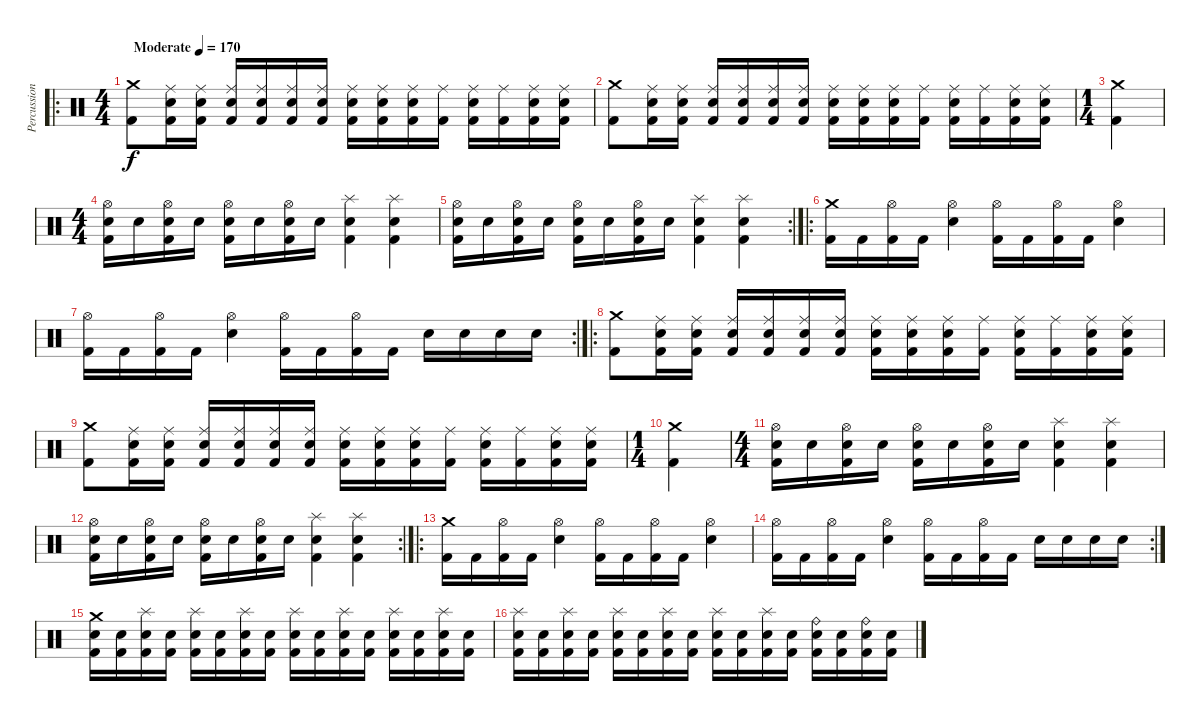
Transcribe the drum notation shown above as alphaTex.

\track ("Percussion" "Percussion") {instrument percussion}
\staff {score}
\articulation defaults
\ro
\ts (4 4)
\tempo (170 "Moderate")
\clef neutral
\ks c
("Crash medium (hit)" "Kick (hit) 2").8{dy f} ("Ride (middle)" "Electric Snare (hit)" "Kick (hit) 2").16 ("Ride (middle)" "Electric Snare (hit)" "Kick (hit) 2").16 ("Ride (middle)" "Electric Snare (hit)" "Kick (hit) 2").16 ("Ride (middle)" "Electric Snare (hit)" "Kick (hit) 2").16 ("Ride (middle)" "Electric Snare (hit)" "Kick (hit) 2").16 ("Ride (middle)" "Electric Snare (hit)" "Kick (hit) 2").16 ("Ride (middle)" "Electric Snare (hit)" "Kick (hit) 2").16 ("Ride (middle)" "Electric Snare (hit)" "Kick (hit) 2").16 ("Ride (middle)" "Electric Snare (hit)" "Kick (hit) 2").16 ("Ride (middle)" "Kick (hit) 2").16 ("Ride (middle)" "Electric Snare (hit)" "Kick (hit) 2").16 ("Ride (middle)" "Kick (hit) 2").16 ("Ride (middle)" "Electric Snare (hit)" "Kick (hit) 2").16 ("Ride (middle)" "Electric Snare (hit)" "Kick (hit) 2").16 |
("Crash medium (hit)" "Kick (hit) 2").8 ("Ride (middle)" "Electric Snare (hit)" "Kick (hit) 2").16 ("Ride (middle)" "Electric Snare (hit)" "Kick (hit) 2").16 ("Ride (middle)" "Electric Snare (hit)" "Kick (hit) 2").16 ("Ride (middle)" "Electric Snare (hit)" "Kick (hit) 2").16 ("Ride (middle)" "Electric Snare (hit)" "Kick (hit) 2").16 ("Ride (middle)" "Electric Snare (hit)" "Kick (hit) 2").16 ("Ride (middle)" "Electric Snare (hit)" "Kick (hit) 2").16 ("Ride (middle)" "Electric Snare (hit)" "Kick (hit) 2").16 ("Ride (middle)" "Electric Snare (hit)" "Kick (hit) 2").16 ("Ride (middle)" "Kick (hit) 2").16 ("Ride (middle)" "Electric Snare (hit)" "Kick (hit) 2").16 ("Ride (middle)" "Kick (hit) 2").16 ("Ride (middle)" "Electric Snare (hit)" "Kick (hit) 2").16 ("Ride (middle)" "Electric Snare (hit)" "Kick (hit) 2").16 |
\ts (1 4)
("Crash medium (hit)" "Kick (hit) 2").4 |
\ts (4 4)
("Hi-Hat (open)" "Electric Snare (hit)" "Kick (hit) 2").16 "Electric Snare (hit)".16 ("Hi-Hat (open)" "Electric Snare (hit)" "Kick (hit) 2").16 "Electric Snare (hit)".16 ("Hi-Hat (open)" "Electric Snare (hit)" "Kick (hit) 2").16 "Electric Snare (hit)".16 ("Hi-Hat (open)" "Electric Snare (hit)" "Kick (hit) 2").16 "Electric Snare (hit)".16 ("Splash (hit)" "Electric Snare (hit)" "Kick (hit) 2").4 ("Splash (hit)" "Electric Snare (hit)" "Kick (hit) 2").4 |
\rc 2
("Hi-Hat (open)" "Electric Snare (hit)" "Kick (hit) 2").16 "Electric Snare (hit)".16 ("Hi-Hat (open)" "Electric Snare (hit)" "Kick (hit) 2").16 "Electric Snare (hit)".16 ("Hi-Hat (open)" "Electric Snare (hit)" "Kick (hit) 2").16 "Electric Snare (hit)".16 ("Hi-Hat (open)" "Electric Snare (hit)" "Kick (hit) 2").16 "Electric Snare (hit)".16 ("Splash (hit)" "Electric Snare (hit)" "Kick (hit) 2").4 ("Splash (hit)" "Electric Snare (hit)" "Kick (hit) 2").4 |
\ro
("Crash medium (hit)" "Kick (hit) 2").16 "Kick (hit) 2".16 ("Hi-Hat (open)" "Kick (hit) 2").16 "Kick (hit) 2".16 ("Hi-Hat (open)" "Electric Snare (hit)").4 ("Hi-Hat (open)" "Kick (hit) 2").16 "Kick (hit) 2".16 ("Hi-Hat (open)" "Kick (hit) 2").16 "Kick (hit) 2".16 ("Hi-Hat (open)" "Electric Snare (hit)").4 |
\rc 2
("Hi-Hat (open)" "Kick (hit) 2").16 "Kick (hit) 2".16 ("Hi-Hat (open)" "Kick (hit) 2").16 "Kick (hit) 2".16 ("Hi-Hat (open)" "Electric Snare (hit)").4 ("Hi-Hat (open)" "Kick (hit) 2").16 "Kick (hit) 2".16 ("Hi-Hat (open)" "Kick (hit) 2").16 "Kick (hit) 2".16 "Electric Snare (hit)".16 "Electric Snare (hit)".16 "Electric Snare (hit)".16 "Electric Snare (hit)".16 |
\ro
("Crash medium (hit)" "Kick (hit) 2").8 ("Ride (middle)" "Electric Snare (hit)" "Kick (hit) 2").16 ("Ride (middle)" "Electric Snare (hit)" "Kick (hit) 2").16 ("Ride (middle)" "Electric Snare (hit)" "Kick (hit) 2").16 ("Ride (middle)" "Electric Snare (hit)" "Kick (hit) 2").16 ("Ride (middle)" "Electric Snare (hit)" "Kick (hit) 2").16 ("Ride (middle)" "Electric Snare (hit)" "Kick (hit) 2").16 ("Ride (middle)" "Electric Snare (hit)" "Kick (hit) 2").16 ("Ride (middle)" "Electric Snare (hit)" "Kick (hit) 2").16 ("Ride (middle)" "Electric Snare (hit)" "Kick (hit) 2").16 ("Ride (middle)" "Kick (hit) 2").16 ("Ride (middle)" "Electric Snare (hit)" "Kick (hit) 2").16 ("Ride (middle)" "Kick (hit) 2").16 ("Ride (middle)" "Electric Snare (hit)" "Kick (hit) 2").16 ("Ride (middle)" "Electric Snare (hit)" "Kick (hit) 2").16 |
("Crash medium (hit)" "Kick (hit) 2").8 ("Ride (middle)" "Electric Snare (hit)" "Kick (hit) 2").16 ("Ride (middle)" "Electric Snare (hit)" "Kick (hit) 2").16 ("Ride (middle)" "Electric Snare (hit)" "Kick (hit) 2").16 ("Ride (middle)" "Electric Snare (hit)" "Kick (hit) 2").16 ("Ride (middle)" "Electric Snare (hit)" "Kick (hit) 2").16 ("Ride (middle)" "Electric Snare (hit)" "Kick (hit) 2").16 ("Ride (middle)" "Electric Snare (hit)" "Kick (hit) 2").16 ("Ride (middle)" "Electric Snare (hit)" "Kick (hit) 2").16 ("Ride (middle)" "Electric Snare (hit)" "Kick (hit) 2").16 ("Ride (middle)" "Kick (hit) 2").16 ("Ride (middle)" "Electric Snare (hit)" "Kick (hit) 2").16 ("Ride (middle)" "Kick (hit) 2").16 ("Ride (middle)" "Electric Snare (hit)" "Kick (hit) 2").16 ("Ride (middle)" "Electric Snare (hit)" "Kick (hit) 2").16 |
\ts (1 4)
("Crash medium (hit)" "Kick (hit) 2").4 |
\ts (4 4)
("Hi-Hat (open)" "Electric Snare (hit)" "Kick (hit) 2").16 "Electric Snare (hit)".16 ("Hi-Hat (open)" "Electric Snare (hit)" "Kick (hit) 2").16 "Electric Snare (hit)".16 ("Hi-Hat (open)" "Electric Snare (hit)" "Kick (hit) 2").16 "Electric Snare (hit)".16 ("Hi-Hat (open)" "Electric Snare (hit)" "Kick (hit) 2").16 "Electric Snare (hit)".16 ("Splash (hit)" "Electric Snare (hit)" "Kick (hit) 2").4 ("Splash (hit)" "Electric Snare (hit)" "Kick (hit) 2").4 |
\rc 2
("Hi-Hat (open)" "Electric Snare (hit)" "Kick (hit) 2").16 "Electric Snare (hit)".16 ("Hi-Hat (open)" "Electric Snare (hit)" "Kick (hit) 2").16 "Electric Snare (hit)".16 ("Hi-Hat (open)" "Electric Snare (hit)" "Kick (hit) 2").16 "Electric Snare (hit)".16 ("Hi-Hat (open)" "Electric Snare (hit)" "Kick (hit) 2").16 "Electric Snare (hit)".16 ("Splash (hit)" "Electric Snare (hit)" "Kick (hit) 2").4 ("Splash (hit)" "Electric Snare (hit)" "Kick (hit) 2").4 |
\ro
("Crash medium (hit)" "Kick (hit) 2").16 "Kick (hit) 2".16 ("Hi-Hat (open)" "Kick (hit) 2").16 "Kick (hit) 2".16 ("Hi-Hat (open)" "Electric Snare (hit)").4 ("Hi-Hat (open)" "Kick (hit) 2").16 "Kick (hit) 2".16 ("Hi-Hat (open)" "Kick (hit) 2").16 "Kick (hit) 2".16 ("Hi-Hat (open)" "Electric Snare (hit)").4 |
\rc 2
("Hi-Hat (open)" "Kick (hit) 2").16 "Kick (hit) 2".16 ("Hi-Hat (open)" "Kick (hit) 2").16 "Kick (hit) 2".16 ("Hi-Hat (open)" "Electric Snare (hit)").4 ("Hi-Hat (open)" "Kick (hit) 2").16 "Kick (hit) 2".16 ("Hi-Hat (open)" "Kick (hit) 2").16 "Kick (hit) 2".16 "Electric Snare (hit)".16 "Electric Snare (hit)".16 "Electric Snare (hit)".16 "Electric Snare (hit)".16 |
("Crash medium (hit)" "Electric Snare (hit)" "Kick (hit) 2").16 ("Electric Snare (hit)" "Kick (hit) 2").16 ("Splash (hit)" "Electric Snare (hit)" "Kick (hit) 2").16 ("Electric Snare (hit)" "Kick (hit) 2").16 ("Splash (hit)" "Electric Snare (hit)" "Kick (hit) 2").16 ("Electric Snare (hit)" "Kick (hit) 2").16 ("Splash (hit)" "Electric Snare (hit)" "Kick (hit) 2").16 ("Electric Snare (hit)" "Kick (hit) 2").16 ("Splash (hit)" "Electric Snare (hit)" "Kick (hit) 2").16 ("Electric Snare (hit)" "Kick (hit) 2").16 ("Splash (hit)" "Electric Snare (hit)" "Kick (hit) 2").16 ("Electric Snare (hit)" "Kick (hit) 2").16 ("Splash (hit)" "Electric Snare (hit)" "Kick (hit) 2").16 ("Electric Snare (hit)" "Kick (hit) 2").16 ("Splash (hit)" "Electric Snare (hit)" "Kick (hit) 2").16 ("Electric Snare (hit)" "Kick (hit) 2").16 |
("Splash (hit)" "Electric Snare (hit)" "Kick (hit) 2").16 ("Electric Snare (hit)" "Kick (hit) 2").16 ("Splash (hit)" "Electric Snare (hit)" "Kick (hit) 2").16 ("Electric Snare (hit)" "Kick (hit) 2").16 ("Splash (hit)" "Electric Snare (hit)" "Kick (hit) 2").16 ("Electric Snare (hit)" "Kick (hit) 2").16 ("Splash (hit)" "Electric Snare (hit)" "Kick (hit) 2").16 ("Electric Snare (hit)" "Kick (hit) 2").16 ("Splash (hit)" "Electric Snare (hit)" "Kick (hit) 2").16 ("Electric Snare (hit)" "Kick (hit) 2").16 ("Splash (hit)" "Electric Snare (hit)" "Kick (hit) 2").16 ("Electric Snare (hit)" "Kick (hit) 2").16 ("Ride (bell)" "Electric Snare (hit)" "Kick (hit) 2").16 ("Electric Snare (hit)" "Kick (hit) 2").16 ("Ride (bell)" "Electric Snare (hit)" "Kick (hit) 2").16 ("Electric Snare (hit)" "Kick (hit) 2").16
